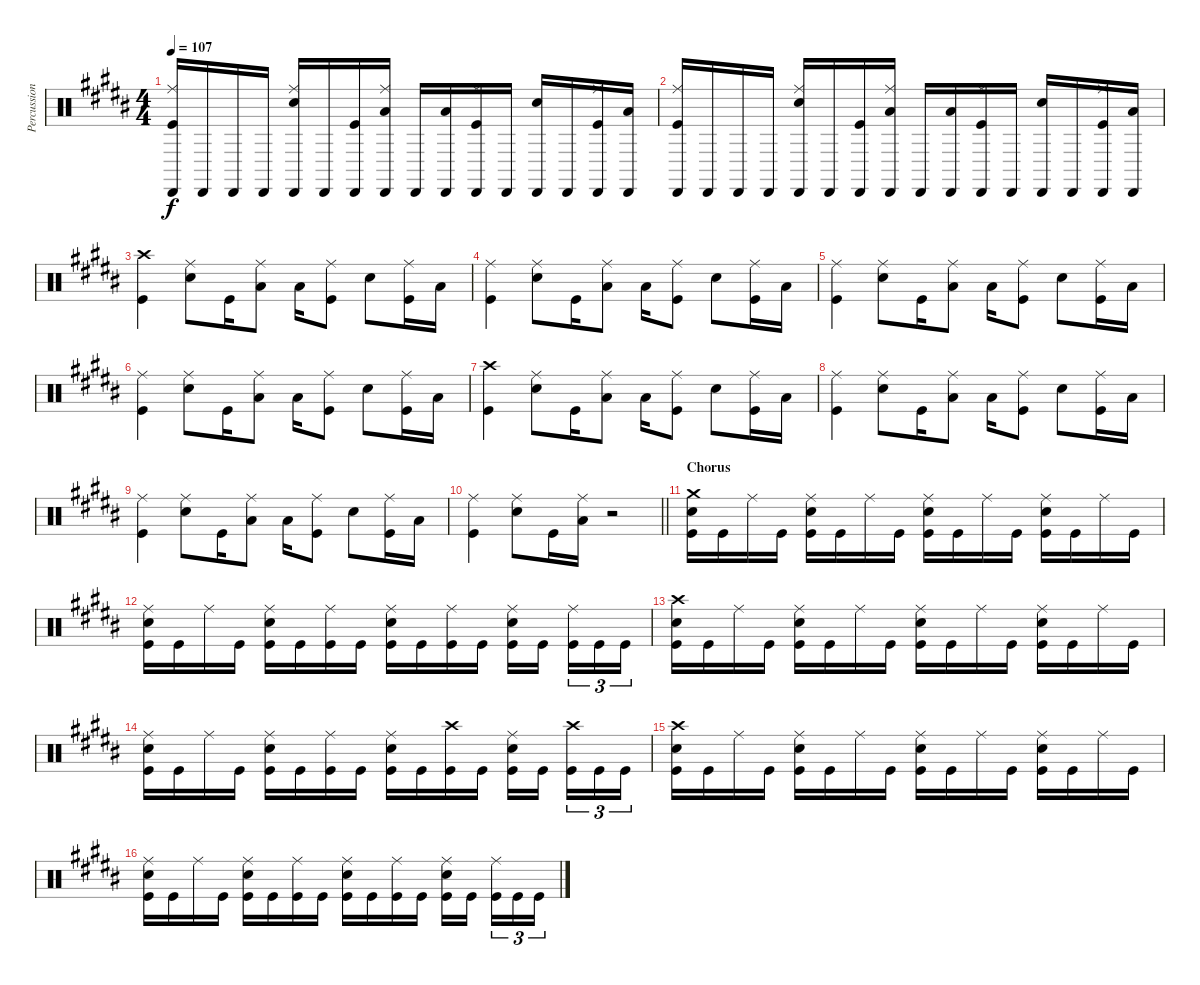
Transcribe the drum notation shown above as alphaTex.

\track ("Percussion" "Percussion") {instrument percussion}
\staff {score}
\articulation defaults
\ts (4 4)
\tempo 107
\clef neutral
\ks b
("Cabasa (hit)" "Ride (middle)" "Kick (hit)").16{dy f} "Cabasa (hit)".16 "Cabasa (hit)".16 "Cabasa (hit)".16 ("Cabasa (hit)" "Ride (middle)" "Electric Snare (hit)").16 "Cabasa (hit)".16 ("Cabasa (hit)" "Kick (hit)").16 ("Cabasa (hit)" "Ride (middle)" "Low Floor Tom (hit)").16 "Cabasa (hit)".16 ("Cabasa (hit)" "Low Floor Tom (hit)").16 ("Cabasa (hit)" "Ride (middle)" "Kick (hit)").16 "Cabasa (hit)".16 ("Cabasa (hit)" "Electric Snare (hit)").16 "Cabasa (hit)".16 ("Cabasa (hit)" "Ride (middle)" "Kick (hit)").16 ("Cabasa (hit)" "Low Floor Tom (hit)").16 |
("Cabasa (hit)" "Ride (middle)" "Kick (hit)").16 "Cabasa (hit)".16 "Cabasa (hit)".16 "Cabasa (hit)".16 ("Cabasa (hit)" "Ride (middle)" "Electric Snare (hit)").16 "Cabasa (hit)".16 ("Cabasa (hit)" "Kick (hit)").16 ("Cabasa (hit)" "Ride (middle)" "Low Floor Tom (hit)").16 "Cabasa (hit)".16 ("Cabasa (hit)" "Low Floor Tom (hit)").16 ("Cabasa (hit)" "Ride (middle)" "Kick (hit)").16 "Cabasa (hit)".16 ("Cabasa (hit)" "Electric Snare (hit)").16 "Cabasa (hit)".16 ("Cabasa (hit)" "Ride (middle)" "Kick (hit)").16 ("Cabasa (hit)" "Low Floor Tom (hit)").16 |
("Crash high (hit)" "Kick (hit)").4 ("Ride (middle)" "Electric Snare (hit)").8 "Kick (hit)".16 ("Ride (middle)" "Low Floor Tom (hit)").8 "Low Floor Tom (hit)".16 ("Ride (middle)" "Kick (hit)").8 "Electric Snare (hit)".8 ("Ride (middle)" "Kick (hit)").16 "Low Floor Tom (hit)".16 |
("Ride (middle)" "Kick (hit)").4 ("Ride (middle)" "Electric Snare (hit)").8 "Kick (hit)".16 ("Ride (middle)" "Low Floor Tom (hit)").8 "Low Floor Tom (hit)".16 ("Ride (middle)" "Kick (hit)").8 "Electric Snare (hit)".8 ("Ride (middle)" "Kick (hit)").16 "Low Floor Tom (hit)".16 |
("Ride (middle)" "Kick (hit)").4 ("Ride (middle)" "Electric Snare (hit)").8 "Kick (hit)".16 ("Ride (middle)" "Low Floor Tom (hit)").8 "Low Floor Tom (hit)".16 ("Ride (middle)" "Kick (hit)").8 "Electric Snare (hit)".8 ("Ride (middle)" "Kick (hit)").16 "Low Floor Tom (hit)".16 |
("Ride (middle)" "Kick (hit)").4 ("Ride (middle)" "Electric Snare (hit)").8 "Kick (hit)".16 ("Ride (middle)" "Low Floor Tom (hit)").8 "Low Floor Tom (hit)".16 ("Ride (middle)" "Kick (hit)").8 "Electric Snare (hit)".8 ("Ride (middle)" "Kick (hit)").16 "Low Floor Tom (hit)".16 |
("Crash high (hit)" "Kick (hit)").4 ("Ride (middle)" "Electric Snare (hit)").8 "Kick (hit)".16 ("Ride (middle)" "Low Floor Tom (hit)").8 "Low Floor Tom (hit)".16 ("Ride (middle)" "Kick (hit)").8 "Electric Snare (hit)".8 ("Ride (middle)" "Kick (hit)").16 "Low Floor Tom (hit)".16 |
("Ride (middle)" "Kick (hit)").4 ("Ride (middle)" "Electric Snare (hit)").8 "Kick (hit)".16 ("Ride (middle)" "Low Floor Tom (hit)").8 "Low Floor Tom (hit)".16 ("Ride (middle)" "Kick (hit)").8 "Electric Snare (hit)".8 ("Ride (middle)" "Kick (hit)").16 "Low Floor Tom (hit)".16 |
("Ride (middle)" "Kick (hit)").4 ("Ride (middle)" "Electric Snare (hit)").8 "Kick (hit)".16 ("Ride (middle)" "Low Floor Tom (hit)").8 "Low Floor Tom (hit)".16 ("Ride (middle)" "Kick (hit)").8 "Electric Snare (hit)".8 ("Ride (middle)" "Kick (hit)").16 "Low Floor Tom (hit)".16 |
\barLineRight lightlight
("Ride (middle)" "Kick (hit)").4 ("Ride (middle)" "Electric Snare (hit)").8 "Kick (hit)".16 ("Ride (middle)" "Low Floor Tom (hit)").16 r.2 |
\section ("" "Chorus")
("Crash medium (hit)" "Electric Snare (hit)" "Kick (hit)").16 "Kick (hit)".16 "Ride (middle)".16 "Kick (hit)".16 ("Ride (middle)" "Electric Snare (hit)" "Kick (hit)").16 "Kick (hit)".16 "Ride (middle)".16 "Kick (hit)".16 ("Ride (middle)" "Electric Snare (hit)" "Kick (hit)").16 "Kick (hit)".16 "Ride (middle)".16 "Kick (hit)".16 ("Ride (middle)" "Electric Snare (hit)" "Kick (hit)").16 "Kick (hit)".16 "Ride (middle)".16 "Kick (hit)".16 |
("Ride (middle)" "Electric Snare (hit)" "Kick (hit)").16 "Kick (hit)".16 "Ride (middle)".16 "Kick (hit)".16 ("Ride (middle)" "Electric Snare (hit)" "Kick (hit)").16 "Kick (hit)".16 ("Ride (middle)" "Kick (hit)").16 "Kick (hit)".16 ("Ride (middle)" "Electric Snare (hit)" "Kick (hit)").16 "Kick (hit)".16 ("Ride (middle)" "Kick (hit)").16 "Kick (hit)".16 ("Ride (middle)" "Electric Snare (hit)" "Kick (hit)").16 "Kick (hit)".16{beam splitsecondary} ("Ride (middle)" "Kick (hit)").16{tu (3 2)} "Kick (hit)".16{tu (3 2)} "Kick (hit)".16{tu (3 2)} |
("Crash high (hit)" "Electric Snare (hit)" "Kick (hit)").16 "Kick (hit)".16 "Ride (middle)".16 "Kick (hit)".16 ("Ride (middle)" "Electric Snare (hit)" "Kick (hit)").16 "Kick (hit)".16 "Ride (middle)".16 "Kick (hit)".16 ("Ride (middle)" "Electric Snare (hit)" "Kick (hit)").16 "Kick (hit)".16 "Ride (middle)".16 "Kick (hit)".16 ("Ride (middle)" "Electric Snare (hit)" "Kick (hit)").16 "Kick (hit)".16 "Ride (middle)".16 "Kick (hit)".16 |
("Ride (middle)" "Electric Snare (hit)" "Kick (hit)").16 "Kick (hit)".16 "Ride (middle)".16 "Kick (hit)".16 ("Ride (middle)" "Electric Snare (hit)" "Kick (hit)").16 "Kick (hit)".16 ("Ride (middle)" "Kick (hit)").16 "Kick (hit)".16 ("Ride (middle)" "Electric Snare (hit)" "Kick (hit)").16 "Kick (hit)".16 ("Crash high (hit)" "Kick (hit)").16 "Kick (hit)".16 ("Ride (middle)" "Electric Snare (hit)" "Kick (hit)").16 "Kick (hit)".16{beam splitsecondary} ("Crash high (hit)" "Kick (hit)").16{tu (3 2)} "Kick (hit)".16{tu (3 2)} "Kick (hit)".16{tu (3 2)} |
("Crash high (hit)" "Electric Snare (hit)" "Kick (hit)").16 "Kick (hit)".16 "Ride (middle)".16 "Kick (hit)".16 ("Ride (middle)" "Electric Snare (hit)" "Kick (hit)").16 "Kick (hit)".16 "Ride (middle)".16 "Kick (hit)".16 ("Ride (middle)" "Electric Snare (hit)" "Kick (hit)").16 "Kick (hit)".16 "Ride (middle)".16 "Kick (hit)".16 ("Ride (middle)" "Electric Snare (hit)" "Kick (hit)").16 "Kick (hit)".16 "Ride (middle)".16 "Kick (hit)".16 |
("Ride (middle)" "Electric Snare (hit)" "Kick (hit)").16 "Kick (hit)".16 "Ride (middle)".16 "Kick (hit)".16 ("Ride (middle)" "Electric Snare (hit)" "Kick (hit)").16 "Kick (hit)".16 ("Ride (middle)" "Kick (hit)").16 "Kick (hit)".16 ("Ride (middle)" "Electric Snare (hit)" "Kick (hit)").16 "Kick (hit)".16 ("Ride (middle)" "Kick (hit)").16 "Kick (hit)".16 ("Ride (middle)" "Electric Snare (hit)" "Kick (hit)").16 "Kick (hit)".16{beam splitsecondary} ("Ride (middle)" "Kick (hit)").16{tu (3 2)} "Kick (hit)".16{tu (3 2)} "Kick (hit)".16{tu (3 2)}
